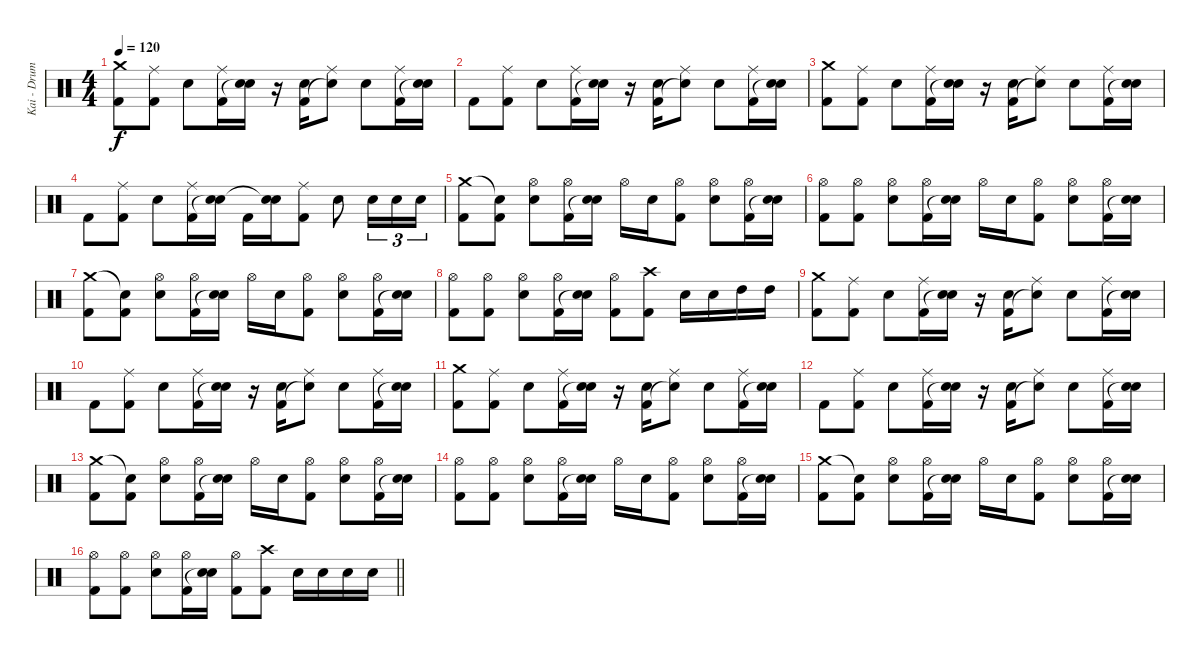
\track ("Kai - Drums" "Kai - Drum") {instrument percussion}
\staff {score}
\articulation defaults
\ts (4 4)
\tempo 120
\clef neutral
\ks c
("Crash medium (hit)" "Kick (hit) 2").8{dy f} ("Ride (middle)" "Kick (hit) 2").8 "Snare (hit) 2".8 ("Ride (middle)" "Kick (hit) 2").16 ("Snare (hit) 2" "Snare (hit)"{t}).16 r.16 ("Snare (hit) 2" "Kick (hit) 2").16 ("Ride (middle)" "Snare (hit)"{t}).8 "Snare (hit) 2".8 ("Ride (middle)" "Kick (hit) 2").16 ("Snare (hit) 2" "Snare (hit)"{t}).16 |
"Kick (hit) 2".8 ("Ride (middle)" "Kick (hit) 2").8 "Snare (hit) 2".8 ("Ride (middle)" "Kick (hit) 2").16 ("Snare (hit) 2" "Snare (hit)"{t}).16 r.16 ("Snare (hit) 2" "Kick (hit) 2").16 ("Ride (middle)" "Snare (hit)"{t}).8 "Snare (hit) 2".8 ("Ride (middle)" "Kick (hit) 2").16 ("Snare (hit) 2" "Snare (hit)"{t}).16 |
("Crash medium (hit)" "Kick (hit) 2").8 ("Ride (middle)" "Kick (hit) 2").8 "Snare (hit) 2".8 ("Ride (middle)" "Kick (hit) 2").16 ("Snare (hit) 2" "Snare (hit)"{t}).16 r.16 ("Snare (hit) 2" "Kick (hit) 2").16 ("Ride (middle)" "Snare (hit)"{t}).8 "Snare (hit) 2".8 ("Ride (middle)" "Kick (hit) 2").16 ("Snare (hit) 2" "Snare (hit)"{t}).16 |
"Kick (hit) 2".8 ("Ride (middle)" "Kick (hit) 2").8 "Snare (hit) 2".8 ("Ride (middle)" "Kick (hit) 2").16 ("Snare (hit) 2" "Snare (hit)"{t}).16 "Kick (hit) 2".16 ("Snare (hit) 2" "Snare (hit)"{t}).16 ("Ride (middle)" "Kick (hit) 2").8 "Snare (hit) 2".8 "Snare (hit) 2".16{tu (3 2)} "Snare (hit) 2".16{tu (3 2)} "Snare (hit) 2".16{tu (3 2)} |
("Crash medium (hit)" "Kick (hit) 2").8 ("Snare (hit)"{t} "Kick (hit) 2").8 ("Hi-Hat (open)" "Snare (hit) 2").8 ("Hi-Hat (open)" "Kick (hit) 2").16 ("Snare (hit) 2" "Snare (hit)"{t}).16 "Hi-Hat (open)".16 "Snare (hit) 2".16 ("Hi-Hat (open)" "Kick (hit) 2").8 ("Hi-Hat (open)" "Snare (hit) 2").8 ("Hi-Hat (open)" "Kick (hit) 2").16 ("Snare (hit) 2" "Snare (hit)"{t}).16 |
("Hi-Hat (open)" "Kick (hit) 2").8 ("Hi-Hat (open)" "Kick (hit) 2").8 ("Hi-Hat (open)" "Snare (hit) 2").8 ("Hi-Hat (open)" "Kick (hit) 2").16 ("Snare (hit) 2" "Snare (hit)"{t}).16 "Hi-Hat (open)".16 "Snare (hit) 2".16 ("Hi-Hat (open)" "Kick (hit) 2").8 ("Hi-Hat (open)" "Snare (hit) 2").8 ("Hi-Hat (open)" "Kick (hit) 2").16 ("Snare (hit) 2" "Snare (hit)"{t}).16 |
("Crash medium (hit)" "Kick (hit) 2").8 ("Snare (hit)"{t} "Kick (hit) 2").8 ("Hi-Hat (open)" "Snare (hit) 2").8 ("Hi-Hat (open)" "Kick (hit) 2").16 ("Snare (hit) 2" "Snare (hit)"{t}).16 "Hi-Hat (open)".16 "Snare (hit) 2".16 ("Hi-Hat (open)" "Kick (hit) 2").8 ("Hi-Hat (open)" "Snare (hit) 2").8 ("Hi-Hat (open)" "Kick (hit) 2").16 ("Snare (hit) 2" "Snare (hit)"{t}).16 |
("Hi-Hat (open)" "Kick (hit) 2").8 ("Hi-Hat (open)" "Kick (hit) 2").8 ("Hi-Hat (open)" "Snare (hit) 2").8 ("Hi-Hat (open)" "Kick (hit) 2").16 ("Snare (hit) 2" "Snare (hit)"{t}).16 ("Hi-Hat (open)" "Kick (hit) 2").8 ("Crash high (hit)" "Kick (hit) 2").8 "Snare (hit) 2".16 "Snare (hit) 2".16 "High Tom (hit)".16 "High Tom (hit)".16 |
("Crash medium (hit)" "Kick (hit) 2").8 ("Ride (middle)" "Kick (hit) 2").8 "Snare (hit) 2".8 ("Ride (middle)" "Kick (hit) 2").16 ("Snare (hit) 2" "Snare (hit)"{t}).16 r.16 ("Snare (hit) 2" "Kick (hit) 2").16 ("Ride (middle)" "Snare (hit)"{t}).8 "Snare (hit) 2".8 ("Ride (middle)" "Kick (hit) 2").16 ("Snare (hit) 2" "Snare (hit)"{t}).16 |
"Kick (hit) 2".8 ("Ride (middle)" "Kick (hit) 2").8 "Snare (hit) 2".8 ("Ride (middle)" "Kick (hit) 2").16 ("Snare (hit) 2" "Snare (hit)"{t}).16 r.16 ("Snare (hit) 2" "Kick (hit) 2").16 ("Ride (middle)" "Snare (hit)"{t}).8 "Snare (hit) 2".8 ("Ride (middle)" "Kick (hit) 2").16 ("Snare (hit) 2" "Snare (hit)"{t}).16 |
("Crash medium (hit)" "Kick (hit) 2").8 ("Ride (middle)" "Kick (hit) 2").8 "Snare (hit) 2".8 ("Ride (middle)" "Kick (hit) 2").16 ("Snare (hit) 2" "Snare (hit)"{t}).16 r.16 ("Snare (hit) 2" "Kick (hit) 2").16 ("Ride (middle)" "Snare (hit)"{t}).8 "Snare (hit) 2".8 ("Ride (middle)" "Kick (hit) 2").16 ("Snare (hit) 2" "Snare (hit)"{t}).16 |
"Kick (hit) 2".8 ("Ride (middle)" "Kick (hit) 2").8 "Snare (hit) 2".8 ("Ride (middle)" "Kick (hit) 2").16 ("Snare (hit) 2" "Snare (hit)"{t}).16 r.16 ("Snare (hit) 2" "Kick (hit) 2").16 ("Ride (middle)" "Snare (hit)"{t}).8 "Snare (hit) 2".8 ("Ride (middle)" "Kick (hit) 2").16 ("Snare (hit) 2" "Snare (hit)"{t}).16 |
("Crash medium (hit)" "Kick (hit) 2").8 ("Snare (hit)"{t} "Kick (hit) 2").8 ("Hi-Hat (open)" "Snare (hit) 2").8 ("Hi-Hat (open)" "Kick (hit) 2").16 ("Snare (hit) 2" "Snare (hit)"{t}).16 "Hi-Hat (open)".16 "Snare (hit) 2".16 ("Hi-Hat (open)" "Kick (hit) 2").8 ("Hi-Hat (open)" "Snare (hit) 2").8 ("Hi-Hat (open)" "Kick (hit) 2").16 ("Snare (hit) 2" "Snare (hit)"{t}).16 |
("Hi-Hat (open)" "Kick (hit) 2").8 ("Hi-Hat (open)" "Kick (hit) 2").8 ("Hi-Hat (open)" "Snare (hit) 2").8 ("Hi-Hat (open)" "Kick (hit) 2").16 ("Snare (hit) 2" "Snare (hit)"{t}).16 "Hi-Hat (open)".16 "Snare (hit) 2".16 ("Hi-Hat (open)" "Kick (hit) 2").8 ("Hi-Hat (open)" "Snare (hit) 2").8 ("Hi-Hat (open)" "Kick (hit) 2").16 ("Snare (hit) 2" "Snare (hit)"{t}).16 |
("Crash medium (hit)" "Kick (hit) 2").8 ("Snare (hit)"{t} "Kick (hit) 2").8 ("Hi-Hat (open)" "Snare (hit) 2").8 ("Hi-Hat (open)" "Kick (hit) 2").16 ("Snare (hit) 2" "Snare (hit)"{t}).16 "Hi-Hat (open)".16 "Snare (hit) 2".16 ("Hi-Hat (open)" "Kick (hit) 2").8 ("Hi-Hat (open)" "Snare (hit) 2").8 ("Hi-Hat (open)" "Kick (hit) 2").16 ("Snare (hit) 2" "Snare (hit)"{t}).16 |
\barLineRight lightlight
("Hi-Hat (open)" "Kick (hit) 2").8 ("Hi-Hat (open)" "Kick (hit) 2").8 ("Hi-Hat (open)" "Snare (hit) 2").8 ("Hi-Hat (open)" "Kick (hit) 2").16 ("Snare (hit) 2" "Snare (hit)"{t}).16 ("Hi-Hat (open)" "Kick (hit) 2").8 ("Crash high (hit)" "Kick (hit) 2").8 "Snare (hit) 2".16 "Snare (hit) 2".16 "Snare (hit) 2".16 "Snare (hit) 2".16
